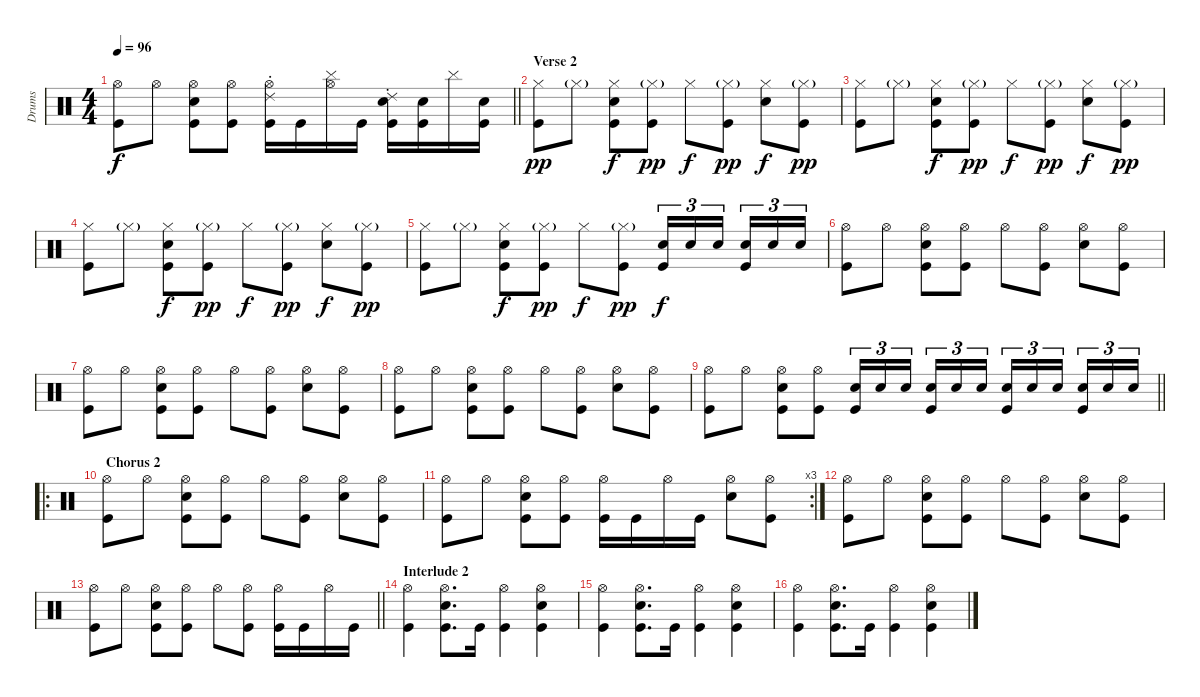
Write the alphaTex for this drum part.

\track ("Drums" "Drums") {instrument percussion}
\staff {score}
\articulation defaults
\ts (4 4)
\tempo 96
\clef neutral
\barLineRight lightlight
\ks c
("Hi-Hat (open)" "Kick (hit)").8{dy f} "Hi-Hat (open)".8 ("Snare (hit) 2" "Hi-Hat (open)" "Kick (hit)").8 ("Hi-Hat (open)" "Kick (hit)").8 ("Ride (choke) 2" "Hi-Hat (open)" "Kick (hit)").16 "Kick (hit)".16 ("Cymbal (hit)" "Hi-Hat (open)").16 "Kick (hit)".16 ("Ride (choke) 2" "Snare (hit) 2" "Kick (hit)").16 ("Snare (hit) 2" "Kick (hit)").16 "Cymbal (hit)".16 ("Snare (hit) 2" "Kick (hit)").16 |
\section ("" "Verse 2")
("Hi-Hat (closed)" "Kick (hit)").8{dy pp} "Hi-Hat (closed)"{g}.8 ("Snare (hit) 2" "Hi-Hat (closed)" "Kick (hit)").8{dy f} ("Hi-Hat (closed)"{g} "Kick (hit)").8{dy pp} "Hi-Hat (closed)".8{dy f} ("Hi-Hat (closed)"{g} "Kick (hit)").8{dy pp} ("Snare (hit) 2" "Hi-Hat (closed)").8{dy f} ("Hi-Hat (closed)"{g} "Kick (hit)").8{dy pp} |
("Hi-Hat (closed)" "Kick (hit)").8 "Hi-Hat (closed)"{g}.8 ("Snare (hit) 2" "Hi-Hat (closed)" "Kick (hit)").8{dy f} ("Hi-Hat (closed)"{g} "Kick (hit)").8{dy pp} "Hi-Hat (closed)".8{dy f} ("Hi-Hat (closed)"{g} "Kick (hit)").8{dy pp} ("Snare (hit) 2" "Hi-Hat (closed)").8{dy f} ("Hi-Hat (closed)"{g} "Kick (hit)").8{dy pp} |
("Hi-Hat (closed)" "Kick (hit)").8 "Hi-Hat (closed)"{g}.8 ("Snare (hit) 2" "Hi-Hat (closed)" "Kick (hit)").8{dy f} ("Hi-Hat (closed)"{g} "Kick (hit)").8{dy pp} "Hi-Hat (closed)".8{dy f} ("Hi-Hat (closed)"{g} "Kick (hit)").8{dy pp} ("Snare (hit) 2" "Hi-Hat (closed)").8{dy f} ("Hi-Hat (closed)"{g} "Kick (hit)").8{dy pp} |
("Hi-Hat (closed)" "Kick (hit)").8 "Hi-Hat (closed)"{g}.8 ("Snare (hit) 2" "Hi-Hat (closed)" "Kick (hit)").8{dy f} ("Hi-Hat (closed)"{g} "Kick (hit)").8{dy pp} "Hi-Hat (closed)".8{dy f} ("Hi-Hat (closed)"{g} "Kick (hit)").8{dy pp} ("Snare (hit) 2" "Kick (hit)").16{tu (3 2) dy f} "Snare (hit) 2".16{tu (3 2)} "Snare (hit) 2".16{tu (3 2) beam splitsecondary} ("Snare (hit) 2" "Kick (hit)").16{tu (3 2)} "Snare (hit) 2".16{tu (3 2)} "Snare (hit) 2".16{tu (3 2)} |
("Hi-Hat (open)" "Kick (hit)").8 "Hi-Hat (open)".8 ("Snare (hit) 2" "Hi-Hat (open)" "Kick (hit)").8 ("Hi-Hat (open)" "Kick (hit)").8 "Hi-Hat (open)".8 ("Hi-Hat (open)" "Kick (hit)").8 ("Snare (hit) 2" "Hi-Hat (open)").8 ("Hi-Hat (open)" "Kick (hit)").8 |
("Hi-Hat (open)" "Kick (hit)").8 "Hi-Hat (open)".8 ("Snare (hit) 2" "Hi-Hat (open)" "Kick (hit)").8 ("Hi-Hat (open)" "Kick (hit)").8 "Hi-Hat (open)".8 ("Hi-Hat (open)" "Kick (hit)").8 ("Snare (hit) 2" "Hi-Hat (open)").8 ("Hi-Hat (open)" "Kick (hit)").8 |
("Hi-Hat (open)" "Kick (hit)").8 "Hi-Hat (open)".8 ("Snare (hit) 2" "Hi-Hat (open)" "Kick (hit)").8 ("Hi-Hat (open)" "Kick (hit)").8 "Hi-Hat (open)".8 ("Hi-Hat (open)" "Kick (hit)").8 ("Snare (hit) 2" "Hi-Hat (open)").8 ("Hi-Hat (open)" "Kick (hit)").8 |
\barLineRight lightlight
("Hi-Hat (open)" "Kick (hit)").8 "Hi-Hat (open)".8 ("Snare (hit) 2" "Hi-Hat (open)" "Kick (hit)").8 ("Hi-Hat (open)" "Kick (hit)").8 ("Snare (hit) 2" "Kick (hit)").16{tu (3 2)} "Snare (hit) 2".16{tu (3 2)} "Snare (hit) 2".16{tu (3 2) beam splitsecondary} ("Snare (hit) 2" "Kick (hit)").16{tu (3 2)} "Snare (hit) 2".16{tu (3 2)} "Snare (hit) 2".16{tu (3 2)} ("Snare (hit) 2" "Kick (hit)").16{tu (3 2)} "Snare (hit) 2".16{tu (3 2)} "Snare (hit) 2".16{tu (3 2) beam splitsecondary} ("Snare (hit) 2" "Kick (hit)").16{tu (3 2)} "Snare (hit) 2".16{tu (3 2)} "Snare (hit) 2".16{tu (3 2)} |
\ro
\section ("" " Chorus 2")
("Hi-Hat (open)" "Kick (hit)").8 "Hi-Hat (open)".8 ("Snare (hit) 2" "Hi-Hat (open)" "Kick (hit)").8 ("Hi-Hat (open)" "Kick (hit)").8 "Hi-Hat (open)".8 ("Hi-Hat (open)" "Kick (hit)").8 ("Snare (hit) 2" "Hi-Hat (open)").8 ("Hi-Hat (open)" "Kick (hit)").8 |
\rc 3
("Hi-Hat (open)" "Kick (hit)").8 "Hi-Hat (open)".8 ("Snare (hit) 2" "Hi-Hat (open)" "Kick (hit)").8 ("Hi-Hat (open)" "Kick (hit)").8 ("Hi-Hat (open)" "Kick (hit)").16 "Kick (hit)".16 "Hi-Hat (open)".16 "Kick (hit)".16 ("Snare (hit) 2" "Hi-Hat (open)").8 ("Hi-Hat (open)" "Kick (hit)").8 |
("Hi-Hat (open)" "Kick (hit)").8 "Hi-Hat (open)".8 ("Snare (hit) 2" "Hi-Hat (open)" "Kick (hit)").8 ("Hi-Hat (open)" "Kick (hit)").8 "Hi-Hat (open)".8 ("Hi-Hat (open)" "Kick (hit)").8 ("Snare (hit) 2" "Hi-Hat (open)").8 ("Hi-Hat (open)" "Kick (hit)").8 |
\barLineRight lightlight
("Hi-Hat (open)" "Kick (hit)").8 "Hi-Hat (open)".8 ("Snare (hit) 2" "Hi-Hat (open)" "Kick (hit)").8 ("Hi-Hat (open)" "Kick (hit)").8 "Hi-Hat (open)".8 ("Hi-Hat (open)" "Kick (hit)").8 ("Hi-Hat (open)" "Kick (hit)").16 "Kick (hit)".16 "Hi-Hat (open)".16 "Kick (hit)".16 |
\section ("" "Interlude 2")
("Hi-Hat (open)" "Kick (hit)").4 ("Snare (hit) 2" "Hi-Hat (open)" "Kick (hit)").8{d} "Kick (hit)".16 ("Hi-Hat (open)" "Kick (hit)").4 ("Snare (hit) 2" "Hi-Hat (open)" "Kick (hit)").4 |
("Hi-Hat (open)" "Kick (hit)").4 ("Snare (hit) 2" "Hi-Hat (open)" "Kick (hit)").8{d} "Kick (hit)".16 ("Hi-Hat (open)" "Kick (hit)").4 ("Snare (hit) 2" "Hi-Hat (open)" "Kick (hit)").4 |
("Hi-Hat (open)" "Kick (hit)").4 ("Snare (hit) 2" "Hi-Hat (open)" "Kick (hit)").8{d} "Kick (hit)".16 ("Hi-Hat (open)" "Kick (hit)").4 ("Snare (hit) 2" "Hi-Hat (open)" "Kick (hit)").4
